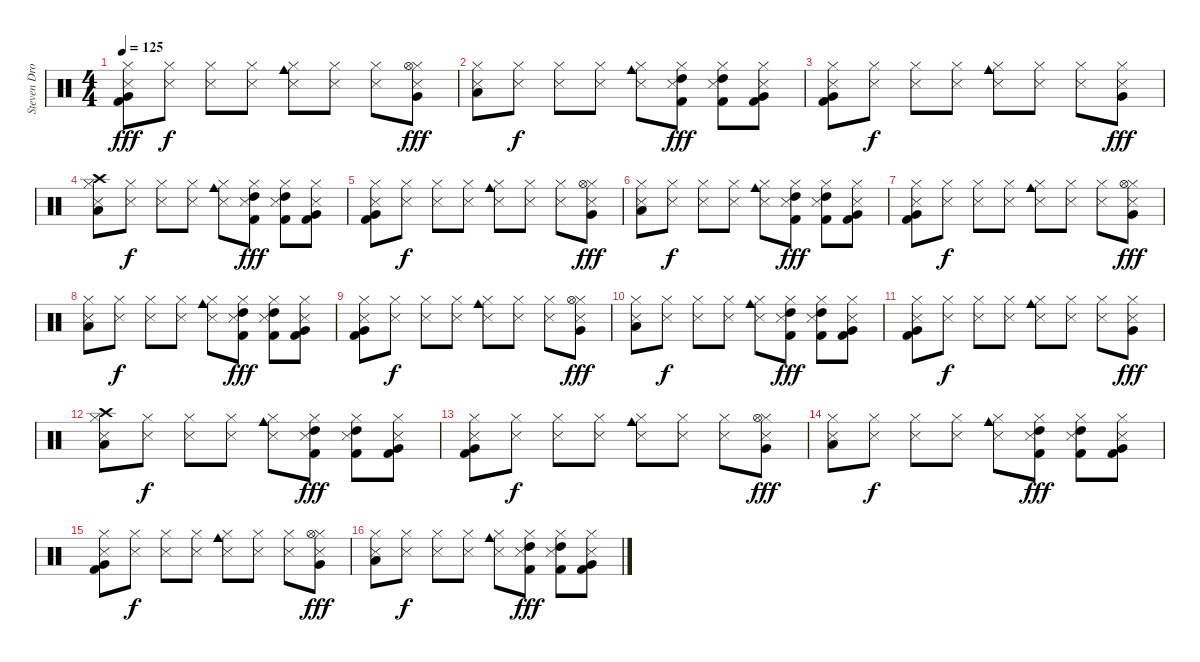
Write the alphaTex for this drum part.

\track ("Steven Drozd (Drums)" "Steven Dro") {instrument percussion}
\staff {score}
\articulation defaults
\ts (4 4)
\tempo 125
\clef neutral
\ks c
("Hi-Hat (closed)" "Metronome (hit)" "Very Low Tom (hit)" "Kick (hit) 2").8{dy fff} ("Hi-Hat (closed)" "Metronome (hit)").8{dy f} ("Hi-Hat (closed)" "Metronome (hit)").8 ("Hi-Hat (closed)" "Metronome (hit)").8 ("Hi-Hat (closed)" "Metronome (hit)" "Cowbell medium (hit)").8 ("Hi-Hat (closed)" "Metronome (hit)").8 ("Hi-Hat (closed)" "Metronome (hit)").8 ("Hi-Hat (closed)" "Metronome (hit)" "Hi-Hat (open)" "Very Low Tom (hit)").8{dy fff} |
("Hi-Hat (closed)" "Metronome (hit)" "Low Floor Tom (hit)").8 ("Hi-Hat (closed)" "Metronome (hit)").8{dy f} ("Hi-Hat (closed)" "Metronome (hit)").8 ("Hi-Hat (closed)" "Metronome (hit)").8 ("Hi-Hat (closed)" "Metronome (hit)" "Cowbell medium (hit)").8 ("Hi-Hat (closed)" "Metronome (hit)" "High Tom (hit)" "Kick (hit) 2").8{dy fff} ("Hi-Hat (closed)" "Metronome (hit)" "High Tom (hit)" "Kick (hit) 2").8 ("Hi-Hat (closed)" "Metronome (hit)" "Very Low Tom (hit)" "Kick (hit) 2").8 |
("Hi-Hat (closed)" "Metronome (hit)" "Very Low Tom (hit)" "Kick (hit) 2").8 ("Hi-Hat (closed)" "Metronome (hit)").8{dy f} ("Hi-Hat (closed)" "Metronome (hit)").8 ("Hi-Hat (closed)" "Metronome (hit)").8 ("Hi-Hat (closed)" "Metronome (hit)" "Cowbell medium (hit)").8 ("Hi-Hat (closed)" "Metronome (hit)").8 ("Hi-Hat (closed)" "Metronome (hit)").8 ("Hi-Hat (closed)" "Metronome (hit)" "Very Low Tom (hit)").8{dy fff} |
("Hi-Hat (closed)" "Metronome (hit)" "Crash high (hit)" "Low Floor Tom (hit)").8 ("Hi-Hat (closed)" "Metronome (hit)").8{dy f} ("Hi-Hat (closed)" "Metronome (hit)").8 ("Hi-Hat (closed)" "Metronome (hit)").8 ("Hi-Hat (closed)" "Metronome (hit)" "Cowbell medium (hit)").8 ("Hi-Hat (closed)" "Metronome (hit)" "High Tom (hit)" "Kick (hit) 2").8{dy fff} ("Hi-Hat (closed)" "Metronome (hit)" "High Tom (hit)" "Kick (hit) 2").8 ("Hi-Hat (closed)" "Metronome (hit)" "Very Low Tom (hit)" "Kick (hit) 2").8 |
("Hi-Hat (closed)" "Metronome (hit)" "Very Low Tom (hit)" "Kick (hit) 2").8 ("Hi-Hat (closed)" "Metronome (hit)").8{dy f} ("Hi-Hat (closed)" "Metronome (hit)").8 ("Hi-Hat (closed)" "Metronome (hit)").8 ("Hi-Hat (closed)" "Metronome (hit)" "Cowbell medium (hit)").8 ("Hi-Hat (closed)" "Metronome (hit)").8 ("Hi-Hat (closed)" "Metronome (hit)").8 ("Hi-Hat (closed)" "Metronome (hit)" "Hi-Hat (open)" "Very Low Tom (hit)").8{dy fff} |
("Hi-Hat (closed)" "Metronome (hit)" "Low Floor Tom (hit)").8 ("Hi-Hat (closed)" "Metronome (hit)").8{dy f} ("Hi-Hat (closed)" "Metronome (hit)").8 ("Hi-Hat (closed)" "Metronome (hit)").8 ("Hi-Hat (closed)" "Metronome (hit)" "Cowbell medium (hit)").8 ("Hi-Hat (closed)" "Metronome (hit)" "High Tom (hit)" "Kick (hit) 2").8{dy fff} ("Hi-Hat (closed)" "Metronome (hit)" "High Tom (hit)" "Kick (hit) 2").8 ("Hi-Hat (closed)" "Metronome (hit)" "Very Low Tom (hit)" "Kick (hit) 2").8 |
("Hi-Hat (closed)" "Metronome (hit)" "Very Low Tom (hit)" "Kick (hit) 2").8 ("Hi-Hat (closed)" "Metronome (hit)").8{dy f} ("Hi-Hat (closed)" "Metronome (hit)").8 ("Hi-Hat (closed)" "Metronome (hit)").8 ("Hi-Hat (closed)" "Metronome (hit)" "Cowbell medium (hit)").8 ("Hi-Hat (closed)" "Metronome (hit)").8 ("Hi-Hat (closed)" "Metronome (hit)").8 ("Hi-Hat (closed)" "Metronome (hit)" "Hi-Hat (open)" "Very Low Tom (hit)").8{dy fff} |
("Hi-Hat (closed)" "Metronome (hit)" "Low Floor Tom (hit)").8 ("Hi-Hat (closed)" "Metronome (hit)").8{dy f} ("Hi-Hat (closed)" "Metronome (hit)").8 ("Hi-Hat (closed)" "Metronome (hit)").8 ("Hi-Hat (closed)" "Metronome (hit)" "Cowbell medium (hit)").8 ("Hi-Hat (closed)" "Metronome (hit)" "High Tom (hit)" "Kick (hit) 2").8{dy fff} ("Hi-Hat (closed)" "Metronome (hit)" "High Tom (hit)" "Kick (hit) 2").8 ("Hi-Hat (closed)" "Metronome (hit)" "Very Low Tom (hit)" "Kick (hit) 2").8 |
("Hi-Hat (closed)" "Metronome (hit)" "Very Low Tom (hit)" "Kick (hit) 2").8 ("Hi-Hat (closed)" "Metronome (hit)").8{dy f} ("Hi-Hat (closed)" "Metronome (hit)").8 ("Hi-Hat (closed)" "Metronome (hit)").8 ("Hi-Hat (closed)" "Metronome (hit)" "Cowbell medium (hit)").8 ("Hi-Hat (closed)" "Metronome (hit)").8 ("Hi-Hat (closed)" "Metronome (hit)").8 ("Hi-Hat (closed)" "Metronome (hit)" "Hi-Hat (open)" "Very Low Tom (hit)").8{dy fff} |
("Hi-Hat (closed)" "Metronome (hit)" "Low Floor Tom (hit)").8 ("Hi-Hat (closed)" "Metronome (hit)").8{dy f} ("Hi-Hat (closed)" "Metronome (hit)").8 ("Hi-Hat (closed)" "Metronome (hit)").8 ("Hi-Hat (closed)" "Metronome (hit)" "Cowbell medium (hit)").8 ("Hi-Hat (closed)" "Metronome (hit)" "High Tom (hit)" "Kick (hit) 2").8{dy fff} ("Hi-Hat (closed)" "Metronome (hit)" "High Tom (hit)" "Kick (hit) 2").8 ("Hi-Hat (closed)" "Metronome (hit)" "Very Low Tom (hit)" "Kick (hit) 2").8 |
("Hi-Hat (closed)" "Metronome (hit)" "Very Low Tom (hit)" "Kick (hit) 2").8 ("Hi-Hat (closed)" "Metronome (hit)").8{dy f} ("Hi-Hat (closed)" "Metronome (hit)").8 ("Hi-Hat (closed)" "Metronome (hit)").8 ("Hi-Hat (closed)" "Metronome (hit)" "Cowbell medium (hit)").8 ("Hi-Hat (closed)" "Metronome (hit)").8 ("Hi-Hat (closed)" "Metronome (hit)").8 ("Hi-Hat (closed)" "Metronome (hit)" "Very Low Tom (hit)").8{dy fff} |
("Hi-Hat (closed)" "Metronome (hit)" "Crash high (hit)" "Low Floor Tom (hit)").8 ("Hi-Hat (closed)" "Metronome (hit)").8{dy f} ("Hi-Hat (closed)" "Metronome (hit)").8 ("Hi-Hat (closed)" "Metronome (hit)").8 ("Hi-Hat (closed)" "Metronome (hit)" "Cowbell medium (hit)").8 ("Hi-Hat (closed)" "Metronome (hit)" "High Tom (hit)" "Kick (hit) 2").8{dy fff} ("Hi-Hat (closed)" "Metronome (hit)" "High Tom (hit)" "Kick (hit) 2").8 ("Hi-Hat (closed)" "Metronome (hit)" "Very Low Tom (hit)" "Kick (hit) 2").8 |
("Hi-Hat (closed)" "Metronome (hit)" "Very Low Tom (hit)" "Kick (hit) 2").8 ("Hi-Hat (closed)" "Metronome (hit)").8{dy f} ("Hi-Hat (closed)" "Metronome (hit)").8 ("Hi-Hat (closed)" "Metronome (hit)").8 ("Hi-Hat (closed)" "Metronome (hit)" "Cowbell medium (hit)").8 ("Hi-Hat (closed)" "Metronome (hit)").8 ("Hi-Hat (closed)" "Metronome (hit)").8 ("Hi-Hat (closed)" "Metronome (hit)" "Hi-Hat (open)" "Very Low Tom (hit)").8{dy fff} |
("Hi-Hat (closed)" "Metronome (hit)" "Low Floor Tom (hit)").8 ("Hi-Hat (closed)" "Metronome (hit)").8{dy f} ("Hi-Hat (closed)" "Metronome (hit)").8 ("Hi-Hat (closed)" "Metronome (hit)").8 ("Hi-Hat (closed)" "Metronome (hit)" "Cowbell medium (hit)").8 ("Hi-Hat (closed)" "Metronome (hit)" "High Tom (hit)" "Kick (hit) 2").8{dy fff} ("Hi-Hat (closed)" "Metronome (hit)" "High Tom (hit)" "Kick (hit) 2").8 ("Hi-Hat (closed)" "Metronome (hit)" "Very Low Tom (hit)" "Kick (hit) 2").8 |
("Hi-Hat (closed)" "Metronome (hit)" "Very Low Tom (hit)" "Kick (hit) 2").8 ("Hi-Hat (closed)" "Metronome (hit)").8{dy f} ("Hi-Hat (closed)" "Metronome (hit)").8 ("Hi-Hat (closed)" "Metronome (hit)").8 ("Hi-Hat (closed)" "Metronome (hit)" "Cowbell medium (hit)").8 ("Hi-Hat (closed)" "Metronome (hit)").8 ("Hi-Hat (closed)" "Metronome (hit)").8 ("Hi-Hat (closed)" "Metronome (hit)" "Hi-Hat (open)" "Very Low Tom (hit)").8{dy fff} |
("Hi-Hat (closed)" "Metronome (hit)" "Low Floor Tom (hit)").8 ("Hi-Hat (closed)" "Metronome (hit)").8{dy f} ("Hi-Hat (closed)" "Metronome (hit)").8 ("Hi-Hat (closed)" "Metronome (hit)").8 ("Hi-Hat (closed)" "Metronome (hit)" "Cowbell medium (hit)").8 ("Hi-Hat (closed)" "Metronome (hit)" "High Tom (hit)" "Kick (hit) 2").8{dy fff} ("Hi-Hat (closed)" "Metronome (hit)" "High Tom (hit)" "Kick (hit) 2").8 ("Hi-Hat (closed)" "Metronome (hit)" "Very Low Tom (hit)" "Kick (hit) 2").8
